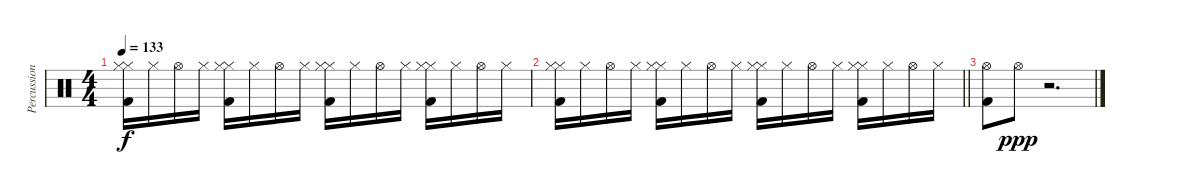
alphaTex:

\track ("Percussioni" "Percussion") {instrument percussion}
\staff {score}
\articulation defaults
\ts (4 4)
\tempo 133
\clef neutral
\ks c
("Hi-Hat (closed)" "Kick (hit) 2" "Hi-Hat (closed)").16{dy f} "Hi-Hat (closed)".16 "Hi-Hat (open)".16 "Hi-Hat (closed)".16 ("Hi-Hat (closed)" "Kick (hit) 2" "Hi-Hat (closed)").16 "Hi-Hat (closed)".16 "Hi-Hat (open)".16 "Hi-Hat (closed)".16 ("Hi-Hat (closed)" "Kick (hit) 2" "Hi-Hat (closed)").16 "Hi-Hat (closed)".16 "Hi-Hat (open)".16 "Hi-Hat (closed)".16 ("Hi-Hat (closed)" "Kick (hit) 2" "Hi-Hat (closed)").16 "Hi-Hat (closed)".16 "Hi-Hat (open)".16 "Hi-Hat (closed)".16 |
\barLineRight lightlight
("Hi-Hat (closed)" "Kick (hit) 2" "Hi-Hat (closed)").16 "Hi-Hat (closed)".16 "Hi-Hat (open)".16 "Hi-Hat (closed)".16 ("Hi-Hat (closed)" "Kick (hit) 2" "Hi-Hat (closed)").16 "Hi-Hat (closed)".16 "Hi-Hat (open)".16 "Hi-Hat (closed)".16 ("Hi-Hat (closed)" "Kick (hit) 2" "Hi-Hat (closed)").16 "Hi-Hat (closed)".16 "Hi-Hat (open)".16 "Hi-Hat (closed)".16 ("Hi-Hat (closed)" "Kick (hit) 2" "Hi-Hat (closed)").16 "Hi-Hat (closed)".16 "Hi-Hat (open)".16 "Hi-Hat (closed)".16 |
("Kick (hit) 2" "Hi-Hat (open)").8 "Hi-Hat (open)".8{dy ppp} r.2{d}
